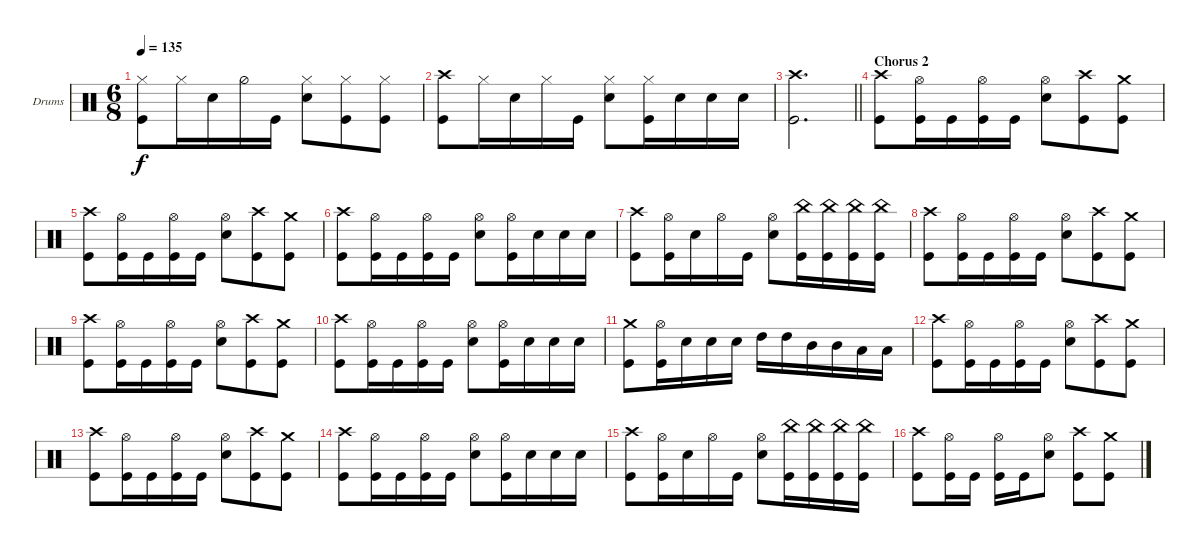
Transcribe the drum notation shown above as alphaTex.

\bracketExtendMode groupsimilarinstruments
\firstSystemTrackNameOrientation horizontal
\otherSystemsTrackNameOrientation horizontal
\track ("drums (Anton Zulganov)" "Drums") {instrument percussion}
\staff {score}
\articulation defaults
\ts (6 8)
\tempo 135
\clef neutral
\ks aminor
("Kick (hit)" "Hi-Hat (closed)").8{dy f} "Hi-Hat (closed)".16 "Snare (hit) 2".16 "Hi-Hat (half)".16 "Kick (hit)".16 ("Snare (hit) 2" "Hi-Hat (closed)").8 ("Kick (hit)" "Hi-Hat (closed)").8 ("Kick (hit)" "Hi-Hat (closed)").8 |
("Kick (hit)" "Crash high (hit)").8 "Hi-Hat (closed)".16 "Snare (hit) 2".16 "Hi-Hat (closed)".16 "Kick (hit)".16 ("Snare (hit) 2" "Hi-Hat (closed)").8 ("Kick (hit)" "Hi-Hat (closed)").16 "Snare (hit) 2".16 "Snare (hit) 2".16 "Snare (hit) 2".16 |
\barLineRight lightlight
("Kick (hit)" "Crash high (hit)").2{d} |
\section ("" "Chorus 2")
("Kick (hit)" "Crash high (hit)").8 ("Kick (hit)" "Hi-Hat (open)").16 "Kick (hit)".16 ("Kick (hit)" "Hi-Hat (open)").16 "Kick (hit)".16 ("Snare (hit) 2" "Hi-Hat (open)").8 ("Kick (hit)" "Crash high (hit)").8 ("Kick (hit)" "Crash medium (hit)").8 |
("Kick (hit)" "Crash high (hit)").8 ("Kick (hit)" "Hi-Hat (open)").16 "Kick (hit)".16 ("Kick (hit)" "Hi-Hat (open)").16 "Kick (hit)".16 ("Snare (hit) 2" "Hi-Hat (open)").8 ("Kick (hit)" "Crash high (hit)").8 ("Kick (hit)" "Crash medium (hit)").8 |
("Kick (hit)" "Crash high (hit)").8 ("Kick (hit)" "Hi-Hat (open)").16 "Kick (hit)".16 ("Kick (hit)" "Hi-Hat (open)").16 "Kick (hit)".16 ("Snare (hit) 2" "Hi-Hat (open)").8 ("Kick (hit)" "Hi-Hat (open)").16 "Snare (hit) 2".16 "Snare (hit) 2".16 "Snare (hit) 2".16 |
("Kick (hit)" "Crash high (hit)").8 ("Kick (hit)" "Hi-Hat (open)").16 "Snare (hit) 2".16 "Hi-Hat (open)".16 "Kick (hit)".16 ("Snare (hit) 2" "Hi-Hat (open)").8 ("Kick (hit)" "China (hit)").16 ("Kick (hit)" "China (hit)").16 ("Kick (hit)" "China (hit)").16 ("Kick (hit)" "China (hit)").16 |
("Kick (hit)" "Crash high (hit)").8 ("Kick (hit)" "Hi-Hat (open)").16 "Kick (hit)".16 ("Kick (hit)" "Hi-Hat (open)").16 "Kick (hit)".16 ("Snare (hit) 2" "Hi-Hat (open)").8 ("Kick (hit)" "Crash high (hit)").8 ("Kick (hit)" "Crash medium (hit)").8 |
("Kick (hit)" "Crash high (hit)").8 ("Kick (hit)" "Hi-Hat (open)").16 "Kick (hit)".16 ("Kick (hit)" "Hi-Hat (open)").16 "Kick (hit)".16 ("Snare (hit) 2" "Hi-Hat (open)").8 ("Kick (hit)" "Crash high (hit)").8 ("Kick (hit)" "Crash medium (hit)").8 |
("Kick (hit)" "Crash high (hit)").8 ("Kick (hit)" "Hi-Hat (open)").16 "Kick (hit)".16 ("Kick (hit)" "Hi-Hat (open)").16 "Kick (hit)".16 ("Snare (hit) 2" "Hi-Hat (open)").8 ("Kick (hit)" "Hi-Hat (open)").16 "Snare (hit) 2".16 "Snare (hit) 2".16 "Snare (hit) 2".16 |
("Kick (hit)" "Crash medium (hit)").8 ("Kick (hit)" "Hi-Hat (open)").16 "Snare (hit) 2".16 "Snare (hit) 2".16 "Snare (hit) 2".16 "High Tom (hit)".16 "High Tom (hit)".16 "Mid Tom (hit)".16 "Mid Tom (hit)".16 "Low Tom (hit)".16 "Low Tom (hit)".16 |
("Kick (hit)" "Crash high (hit)").8 ("Kick (hit)" "Hi-Hat (open)").16 "Kick (hit)".16 ("Kick (hit)" "Hi-Hat (open)").16 "Kick (hit)".16 ("Snare (hit) 2" "Hi-Hat (open)").8 ("Kick (hit)" "Crash high (hit)").8 ("Kick (hit)" "Crash medium (hit)").8 |
("Kick (hit)" "Crash high (hit)").8 ("Kick (hit)" "Hi-Hat (open)").16 "Kick (hit)".16 ("Kick (hit)" "Hi-Hat (open)").16 "Kick (hit)".16 ("Snare (hit) 2" "Hi-Hat (open)").8 ("Kick (hit)" "Crash high (hit)").8 ("Kick (hit)" "Crash medium (hit)").8 |
("Kick (hit)" "Crash high (hit)").8 ("Kick (hit)" "Hi-Hat (open)").16 "Kick (hit)".16 ("Kick (hit)" "Hi-Hat (open)").16 "Kick (hit)".16 ("Snare (hit) 2" "Hi-Hat (open)").8 ("Kick (hit)" "Hi-Hat (open)").16 "Snare (hit) 2".16 "Snare (hit) 2".16 "Snare (hit) 2".16 |
("Kick (hit)" "Crash high (hit)").8 ("Kick (hit)" "Hi-Hat (open)").16 "Snare (hit) 2".16 "Hi-Hat (open)".16 "Kick (hit)".16 ("Snare (hit) 2" "Hi-Hat (open)").8 ("Kick (hit)" "China (hit)").16 ("Kick (hit)" "China (hit)").16 ("Kick (hit)" "China (hit)").16 ("Kick (hit)" "China (hit)").16 |
\beaming (8 2 2 2 2)
("Kick (hit)" "Crash high (hit)").8 ("Kick (hit)" "Hi-Hat (open)").16 "Kick (hit)".16 ("Kick (hit)" "Hi-Hat (open)").16 "Kick (hit)".16 ("Snare (hit) 2" "Hi-Hat (open)").8 ("Kick (hit)" "Crash high (hit)").8 ("Kick (hit)" "Crash medium (hit)").8
